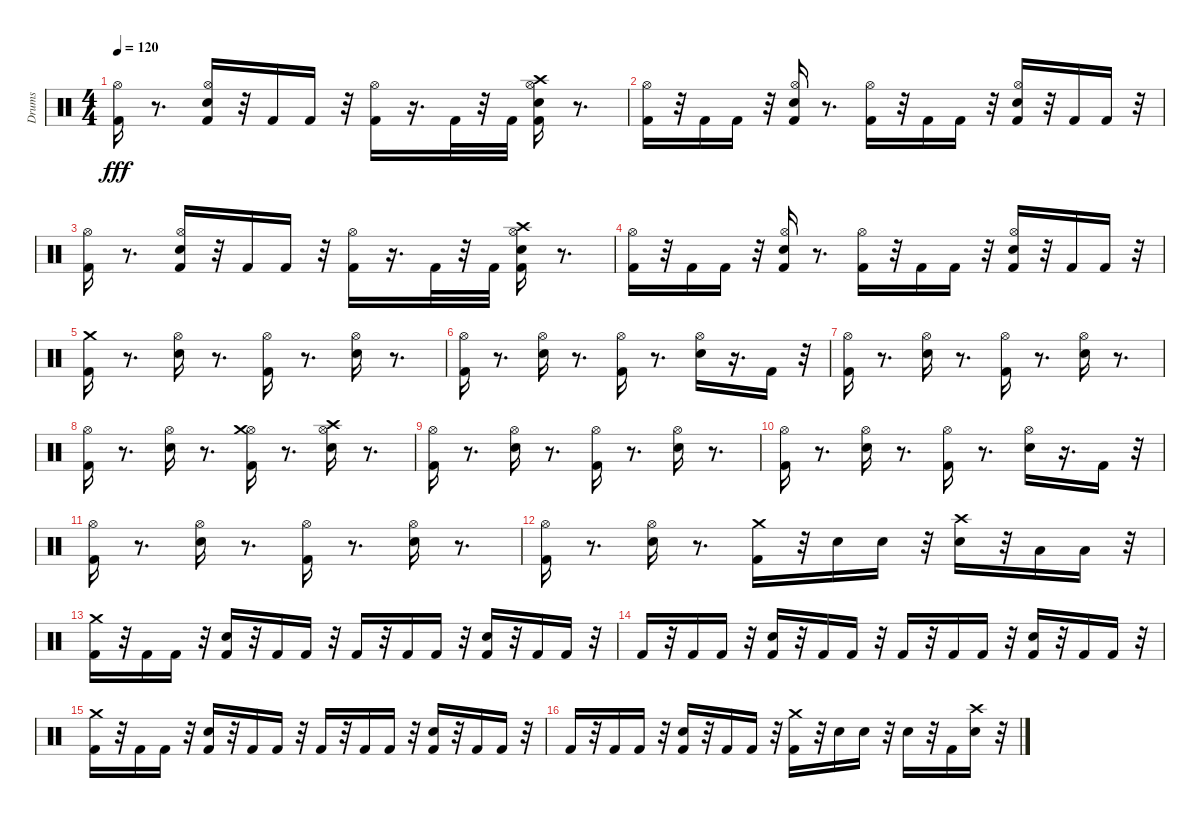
\track ("Drums" "Drums") {instrument percussion}
\staff {score}
\articulation defaults
\ts (4 4)
\tempo 120
\clef neutral
\ks c
("Kick (hit) 2" "Hi-Hat (open)").16{dy fff} r.8{d} ("Electric Snare (hit)" "Kick (hit) 2" "Hi-Hat (open)").16 r.32 "Kick (hit) 2".16 "Kick (hit) 2".16 r.32 ("Kick (hit) 2" "Hi-Hat (open)").16 r.16{d} "Kick (hit) 2".32 r.32 "Kick (hit) 2".32 ("Electric Snare (hit)" "Kick (hit) 2" "Crash high (hit)" "Hi-Hat (open)").16 r.8{d} |
("Kick (hit) 2" "Hi-Hat (open)").16 r.32 "Kick (hit) 2".16 "Kick (hit) 2".16 r.32 ("Electric Snare (hit)" "Kick (hit) 2" "Hi-Hat (open)").16 r.8{d} ("Kick (hit) 2" "Hi-Hat (open)").16 r.32 "Kick (hit) 2".16 "Kick (hit) 2".16 r.32 ("Electric Snare (hit)" "Kick (hit) 2" "Hi-Hat (open)").16 r.32 "Kick (hit) 2".16 "Kick (hit) 2".16 r.32 |
("Kick (hit) 2" "Hi-Hat (open)").16 r.8{d} ("Electric Snare (hit)" "Kick (hit) 2" "Hi-Hat (open)").16 r.32 "Kick (hit) 2".16 "Kick (hit) 2".16 r.32 ("Kick (hit) 2" "Hi-Hat (open)").16 r.16{d} "Kick (hit) 2".32 r.32 "Kick (hit) 2".32 ("Electric Snare (hit)" "Kick (hit) 2" "Crash high (hit)" "Hi-Hat (open)").16 r.8{d} |
("Kick (hit) 2" "Hi-Hat (open)").16 r.32 "Kick (hit) 2".16 "Kick (hit) 2".16 r.32 ("Electric Snare (hit)" "Kick (hit) 2" "Hi-Hat (open)").16 r.8{d} ("Kick (hit) 2" "Hi-Hat (open)").16 r.32 "Kick (hit) 2".16 "Kick (hit) 2".16 r.32 ("Electric Snare (hit)" "Kick (hit) 2" "Hi-Hat (open)").16 r.32 "Kick (hit) 2".16 "Kick (hit) 2".16 r.32 |
("Kick (hit) 2" "Crash medium (hit)").16 r.8{d} ("Electric Snare (hit)" "Hi-Hat (open)").16 r.8{d} ("Kick (hit) 2" "Hi-Hat (open)").16 r.8{d} ("Electric Snare (hit)" "Hi-Hat (open)").16 r.8{d} |
("Kick (hit) 2" "Hi-Hat (open)").16 r.8{d} ("Electric Snare (hit)" "Hi-Hat (open)").16 r.8{d} ("Kick (hit) 2" "Hi-Hat (open)").16 r.8{d} ("Electric Snare (hit)" "Hi-Hat (open)").16 r.16{d} "Kick (hit) 2".16 r.32 |
("Kick (hit) 2" "Hi-Hat (open)").16 r.8{d} ("Electric Snare (hit)" "Hi-Hat (open)").16 r.8{d} ("Kick (hit) 2" "Hi-Hat (open)").16 r.8{d} ("Electric Snare (hit)" "Hi-Hat (open)").16 r.8{d} |
("Kick (hit) 2" "Hi-Hat (open)").16 r.8{d} ("Electric Snare (hit)" "Hi-Hat (open)").16 r.8{d} ("Kick (hit) 2" "Hi-Hat (open)" "Crash medium (hit)").16 r.8{d} ("Electric Snare (hit)" "Hi-Hat (open)" "Crash high (hit)").16 r.8{d} |
("Kick (hit) 2" "Hi-Hat (open)").16 r.8{d} ("Electric Snare (hit)" "Hi-Hat (open)").16 r.8{d} ("Kick (hit) 2" "Hi-Hat (open)").16 r.8{d} ("Electric Snare (hit)" "Hi-Hat (open)").16 r.8{d} |
("Kick (hit) 2" "Hi-Hat (open)").16 r.8{d} ("Electric Snare (hit)" "Hi-Hat (open)").16 r.8{d} ("Kick (hit) 2" "Hi-Hat (open)").16 r.8{d} ("Electric Snare (hit)" "Hi-Hat (open)").16 r.16{d} "Kick (hit) 2".16 r.32 |
("Kick (hit) 2" "Hi-Hat (open)").16 r.8{d} ("Electric Snare (hit)" "Hi-Hat (open)").16 r.8{d} ("Kick (hit) 2" "Hi-Hat (open)").16 r.8{d} ("Electric Snare (hit)" "Hi-Hat (open)").16 r.8{d} |
("Kick (hit) 2" "Hi-Hat (open)").16 r.8{d} ("Electric Snare (hit)" "Hi-Hat (open)").16 r.8{d} ("Kick (hit) 2" "Crash medium (hit)").16 r.32 "Electric Snare (hit)".16 "Electric Snare (hit)".16 r.32 ("Electric Snare (hit)" "Crash high (hit)").16 r.32 "Low Tom (hit)".16 "Low Floor Tom (hit)".16 r.32 |
("Kick (hit) 2" "Crash medium (hit)").16 r.32 "Kick (hit) 2".16 "Kick (hit) 2".16 r.32 ("Kick (hit) 2" "Electric Snare (hit)").16 r.32 "Kick (hit) 2".16 "Kick (hit) 2".16 r.32 "Kick (hit) 2".16 r.32 "Kick (hit) 2".16 "Kick (hit) 2".16 r.32 ("Kick (hit) 2" "Electric Snare (hit)").16 r.32 "Kick (hit) 2".16 "Kick (hit) 2".16 r.32 |
"Kick (hit) 2".16 r.32 "Kick (hit) 2".16 "Kick (hit) 2".16 r.32 ("Kick (hit) 2" "Electric Snare (hit)").16 r.32 "Kick (hit) 2".16 "Kick (hit) 2".16 r.32 "Kick (hit) 2".16 r.32 "Kick (hit) 2".16 "Kick (hit) 2".16 r.32 ("Kick (hit) 2" "Electric Snare (hit)").16 r.32 "Kick (hit) 2".16 "Kick (hit) 2".16 r.32 |
("Kick (hit) 2" "Crash medium (hit)").16 r.32 "Kick (hit) 2".16 "Kick (hit) 2".16 r.32 ("Kick (hit) 2" "Electric Snare (hit)").16 r.32 "Kick (hit) 2".16 "Kick (hit) 2".16 r.32 "Kick (hit) 2".16 r.32 "Kick (hit) 2".16 "Kick (hit) 2".16 r.32 ("Kick (hit) 2" "Electric Snare (hit)").16 r.32 "Kick (hit) 2".16 "Kick (hit) 2".16 r.32 |
"Kick (hit) 2".16 r.32 "Kick (hit) 2".16 "Kick (hit) 2".16 r.32 ("Kick (hit) 2" "Electric Snare (hit)").16 r.32 "Kick (hit) 2".16 "Kick (hit) 2".16 r.32 ("Kick (hit) 2" "Crash medium (hit)").16 r.32 "Electric Snare (hit)".16 "Electric Snare (hit)".16 r.32 "Electric Snare (hit)".16 r.32 "Kick (hit) 2".16 ("Electric Snare (hit)" "Crash high (hit)").16 r.32
